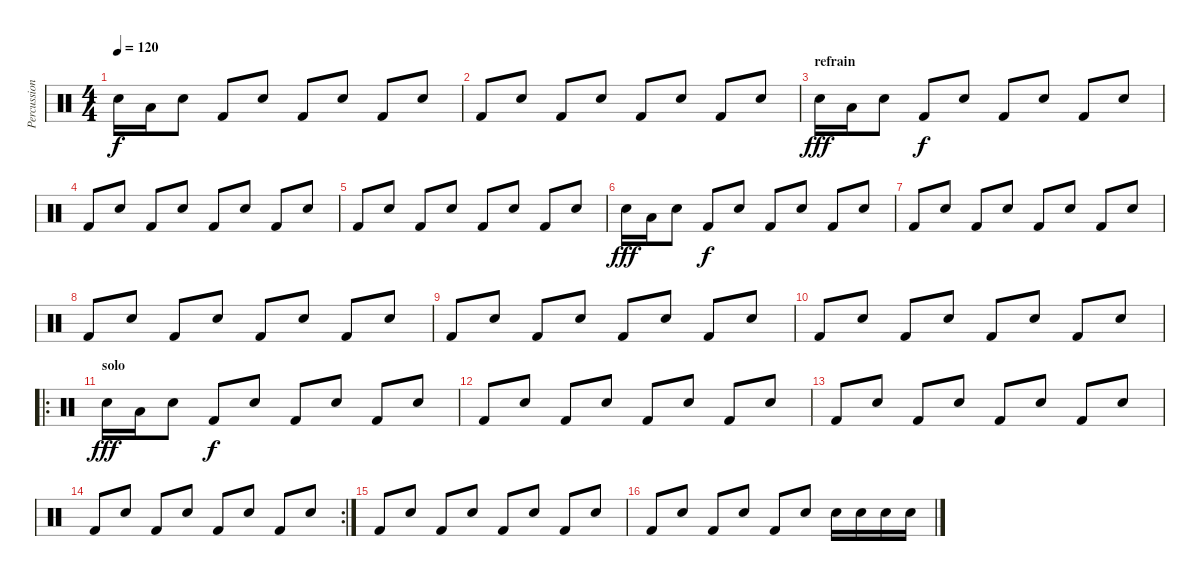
\track ("Percussions-Vlad" "Percussion") {instrument percussion}
\staff {score}
\articulation defaults
\ts (4 4)
\tempo 120
\clef neutral
\ks c "Electric Snare (hit)".16{dy f} "Low Tom (hit)".16 "Electric Snare (hit)".8 "Kick (hit) 2".8 "Electric Snare (hit)".8 "Kick (hit) 2".8 "Electric Snare (hit)".8 "Kick (hit) 2".8 "Electric Snare (hit)".8
|
"Kick (hit) 2".8 "Electric Snare (hit)".8 "Kick (hit) 2".8 "Electric Snare (hit)".8 "Kick (hit) 2".8 "Electric Snare (hit)".8 "Kick (hit) 2".8 "Electric Snare (hit)".8 |
\section ("" "refrain")
"Electric Snare (hit)".16{dy fff} "Low Tom (hit)".16 "Electric Snare (hit)".8 "Kick (hit) 2".8{dy f} "Electric Snare (hit)".8 "Kick (hit) 2".8 "Electric Snare (hit)".8 "Kick (hit) 2".8 "Electric Snare (hit)".8 |
"Kick (hit) 2".8 "Electric Snare (hit)".8 "Kick (hit) 2".8 "Electric Snare (hit)".8 "Kick (hit) 2".8 "Electric Snare (hit)".8 "Kick (hit) 2".8 "Electric Snare (hit)".8 |
"Kick (hit) 2".8 "Electric Snare (hit)".8 "Kick (hit) 2".8 "Electric Snare (hit)".8 "Kick (hit) 2".8 "Electric Snare (hit)".8 "Kick (hit) 2".8 "Electric Snare (hit)".8 |
"Electric Snare (hit)".16{dy fff} "Low Tom (hit)".16 "Electric Snare (hit)".8 "Kick (hit) 2".8{dy f} "Electric Snare (hit)".8 "Kick (hit) 2".8 "Electric Snare (hit)".8 "Kick (hit) 2".8 "Electric Snare (hit)".8 |
"Kick (hit) 2".8 "Electric Snare (hit)".8 "Kick (hit) 2".8 "Electric Snare (hit)".8 "Kick (hit) 2".8 "Electric Snare (hit)".8 "Kick (hit) 2".8 "Electric Snare (hit)".8 |
"Kick (hit) 2".8 "Electric Snare (hit)".8 "Kick (hit) 2".8 "Electric Snare (hit)".8 "Kick (hit) 2".8 "Electric Snare (hit)".8 "Kick (hit) 2".8 "Electric Snare (hit)".8 |
"Kick (hit) 2".8 "Electric Snare (hit)".8 "Kick (hit) 2".8 "Electric Snare (hit)".8 "Kick (hit) 2".8 "Electric Snare (hit)".8 "Kick (hit) 2".8 "Electric Snare (hit)".8 |
"Kick (hit) 2".8 "Electric Snare (hit)".8 "Kick (hit) 2".8 "Electric Snare (hit)".8 "Kick (hit) 2".8 "Electric Snare (hit)".8 "Kick (hit) 2".8 "Electric Snare (hit)".8 |
\ro
\section ("" "solo")
"Electric Snare (hit)".16{dy fff} "Low Tom (hit)".16 "Electric Snare (hit)".8 "Kick (hit) 2".8{dy f} "Electric Snare (hit)".8 "Kick (hit) 2".8 "Electric Snare (hit)".8 "Kick (hit) 2".8 "Electric Snare (hit)".8 |
"Kick (hit) 2".8 "Electric Snare (hit)".8 "Kick (hit) 2".8 "Electric Snare (hit)".8 "Kick (hit) 2".8 "Electric Snare (hit)".8 "Kick (hit) 2".8 "Electric Snare (hit)".8 |
"Kick (hit) 2".8 "Electric Snare (hit)".8 "Kick (hit) 2".8 "Electric Snare (hit)".8 "Kick (hit) 2".8 "Electric Snare (hit)".8 "Kick (hit) 2".8 "Electric Snare (hit)".8 |
\rc 2 "Kick (hit) 2".8 "Electric Snare (hit)".8 "Kick (hit) 2".8 "Electric Snare (hit)".8 "Kick (hit) 2".8 "Electric Snare (hit)".8 "Kick (hit) 2".8 "Electric Snare (hit)".8
|
"Kick (hit) 2".8 "Electric Snare (hit)".8 "Kick (hit) 2".8 "Electric Snare (hit)".8 "Kick (hit) 2".8 "Electric Snare (hit)".8 "Kick (hit) 2".8 "Electric Snare (hit)".8 |
"Kick (hit) 2".8 "Electric Snare (hit)".8 "Kick (hit) 2".8 "Electric Snare (hit)".8 "Kick (hit) 2".8 "Electric Snare (hit)".8 "Electric Snare (hit)".16 "Electric Snare (hit)".16 "Electric Snare (hit)".16 "Electric Snare (hit)".16
